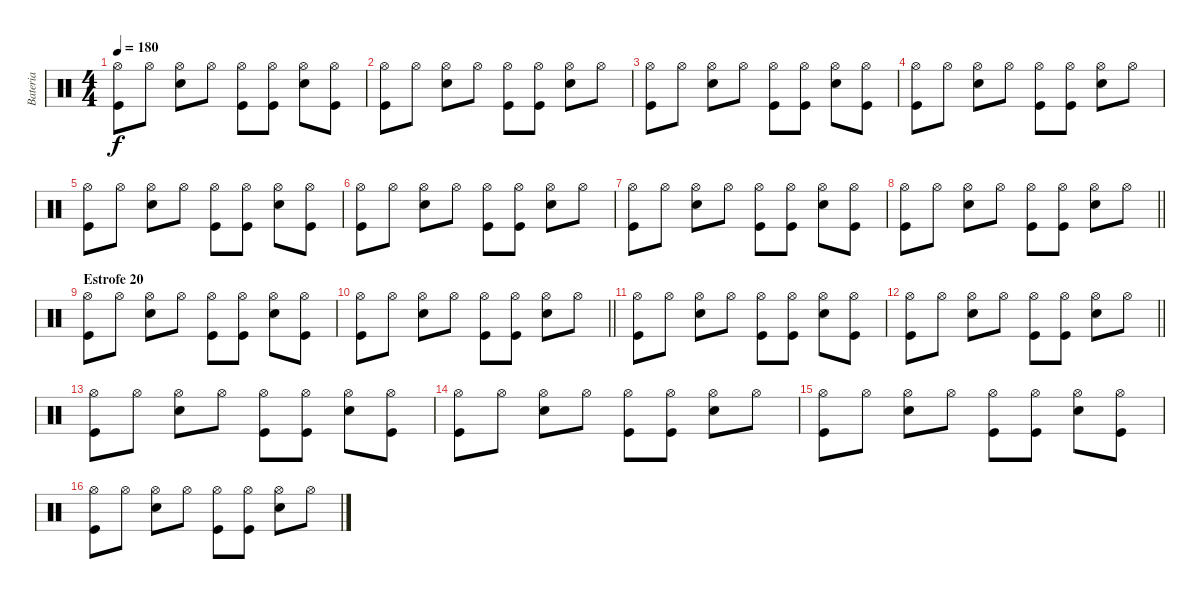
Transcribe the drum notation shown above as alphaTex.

\track ("Bateria" "Bateria") {instrument percussion}
\staff {score}
\articulation defaults
\ts (4 4)
\tempo 180
\clef neutral
\ks c
("Hi-Hat (open)" "Kick (hit)").8{dy f} "Hi-Hat (open)".8 ("Hi-Hat (open)" "Snare (hit) 2").8 "Hi-Hat (open)".8 ("Hi-Hat (open)" "Kick (hit)").8 ("Hi-Hat (open)" "Kick (hit)").8 ("Hi-Hat (open)" "Snare (hit) 2").8 ("Hi-Hat (open)" "Kick (hit)").8 |
("Hi-Hat (open)" "Kick (hit)").8 "Hi-Hat (open)".8 ("Hi-Hat (open)" "Snare (hit) 2").8 "Hi-Hat (open)".8 ("Hi-Hat (open)" "Kick (hit)").8 ("Hi-Hat (open)" "Kick (hit)").8 ("Hi-Hat (open)" "Snare (hit) 2").8 "Hi-Hat (open)".8 |
("Hi-Hat (open)" "Kick (hit)").8 "Hi-Hat (open)".8 ("Hi-Hat (open)" "Snare (hit) 2").8 "Hi-Hat (open)".8 ("Hi-Hat (open)" "Kick (hit)").8 ("Hi-Hat (open)" "Kick (hit)").8 ("Hi-Hat (open)" "Snare (hit) 2").8 ("Hi-Hat (open)" "Kick (hit)").8 |
("Hi-Hat (open)" "Kick (hit)").8 "Hi-Hat (open)".8 ("Hi-Hat (open)" "Snare (hit) 2").8 "Hi-Hat (open)".8 ("Hi-Hat (open)" "Kick (hit)").8 ("Hi-Hat (open)" "Kick (hit)").8 ("Hi-Hat (open)" "Snare (hit) 2").8 "Hi-Hat (open)".8 |
("Hi-Hat (open)" "Kick (hit)").8 "Hi-Hat (open)".8 ("Hi-Hat (open)" "Snare (hit) 2").8 "Hi-Hat (open)".8 ("Hi-Hat (open)" "Kick (hit)").8 ("Hi-Hat (open)" "Kick (hit)").8 ("Hi-Hat (open)" "Snare (hit) 2").8 ("Hi-Hat (open)" "Kick (hit)").8 |
("Hi-Hat (open)" "Kick (hit)").8 "Hi-Hat (open)".8 ("Hi-Hat (open)" "Snare (hit) 2").8 "Hi-Hat (open)".8 ("Hi-Hat (open)" "Kick (hit)").8 ("Hi-Hat (open)" "Kick (hit)").8 ("Hi-Hat (open)" "Snare (hit) 2").8 "Hi-Hat (open)".8 |
("Hi-Hat (open)" "Kick (hit)").8 "Hi-Hat (open)".8 ("Hi-Hat (open)" "Snare (hit) 2").8 "Hi-Hat (open)".8 ("Hi-Hat (open)" "Kick (hit)").8 ("Hi-Hat (open)" "Kick (hit)").8 ("Hi-Hat (open)" "Snare (hit) 2").8 ("Hi-Hat (open)" "Kick (hit)").8 |
\barLineRight lightlight
("Hi-Hat (open)" "Kick (hit)").8 "Hi-Hat (open)".8 ("Hi-Hat (open)" "Snare (hit) 2").8 "Hi-Hat (open)".8 ("Hi-Hat (open)" "Kick (hit)").8 ("Hi-Hat (open)" "Kick (hit)").8 ("Hi-Hat (open)" "Snare (hit) 2").8 "Hi-Hat (open)".8 |
\section ("" "Estrofe 20")
("Hi-Hat (open)" "Kick (hit)").8 "Hi-Hat (open)".8 ("Hi-Hat (open)" "Snare (hit) 2").8 "Hi-Hat (open)".8 ("Hi-Hat (open)" "Kick (hit)").8 ("Hi-Hat (open)" "Kick (hit)").8 ("Hi-Hat (open)" "Snare (hit) 2").8 ("Hi-Hat (open)" "Kick (hit)").8 |
\barLineRight lightlight
("Hi-Hat (open)" "Kick (hit)").8 "Hi-Hat (open)".8 ("Hi-Hat (open)" "Snare (hit) 2").8 "Hi-Hat (open)".8 ("Hi-Hat (open)" "Kick (hit)").8 ("Hi-Hat (open)" "Kick (hit)").8 ("Hi-Hat (open)" "Snare (hit) 2").8 "Hi-Hat (open)".8 |
("Hi-Hat (open)" "Kick (hit)").8 "Hi-Hat (open)".8 ("Hi-Hat (open)" "Snare (hit) 2").8 "Hi-Hat (open)".8 ("Hi-Hat (open)" "Kick (hit)").8 ("Hi-Hat (open)" "Kick (hit)").8 ("Hi-Hat (open)" "Snare (hit) 2").8 ("Hi-Hat (open)" "Kick (hit)").8 |
\barLineRight lightlight
("Hi-Hat (open)" "Kick (hit)").8 "Hi-Hat (open)".8 ("Hi-Hat (open)" "Snare (hit) 2").8 "Hi-Hat (open)".8 ("Hi-Hat (open)" "Kick (hit)").8 ("Hi-Hat (open)" "Kick (hit)").8 ("Hi-Hat (open)" "Snare (hit) 2").8 "Hi-Hat (open)".8 |
("Hi-Hat (open)" "Kick (hit)").8 "Hi-Hat (open)".8 ("Hi-Hat (open)" "Snare (hit) 2").8 "Hi-Hat (open)".8 ("Hi-Hat (open)" "Kick (hit)").8 ("Hi-Hat (open)" "Kick (hit)").8 ("Hi-Hat (open)" "Snare (hit) 2").8 ("Hi-Hat (open)" "Kick (hit)").8 |
("Hi-Hat (open)" "Kick (hit)").8 "Hi-Hat (open)".8 ("Hi-Hat (open)" "Snare (hit) 2").8 "Hi-Hat (open)".8 ("Hi-Hat (open)" "Kick (hit)").8 ("Hi-Hat (open)" "Kick (hit)").8 ("Hi-Hat (open)" "Snare (hit) 2").8 "Hi-Hat (open)".8 |
("Hi-Hat (open)" "Kick (hit)").8 "Hi-Hat (open)".8 ("Hi-Hat (open)" "Snare (hit) 2").8 "Hi-Hat (open)".8 ("Hi-Hat (open)" "Kick (hit)").8 ("Hi-Hat (open)" "Kick (hit)").8 ("Hi-Hat (open)" "Snare (hit) 2").8 ("Hi-Hat (open)" "Kick (hit)").8 |
("Hi-Hat (open)" "Kick (hit)").8 "Hi-Hat (open)".8 ("Hi-Hat (open)" "Snare (hit) 2").8 "Hi-Hat (open)".8 ("Hi-Hat (open)" "Kick (hit)").8 ("Hi-Hat (open)" "Kick (hit)").8 ("Hi-Hat (open)" "Snare (hit) 2").8 "Hi-Hat (open)".8
